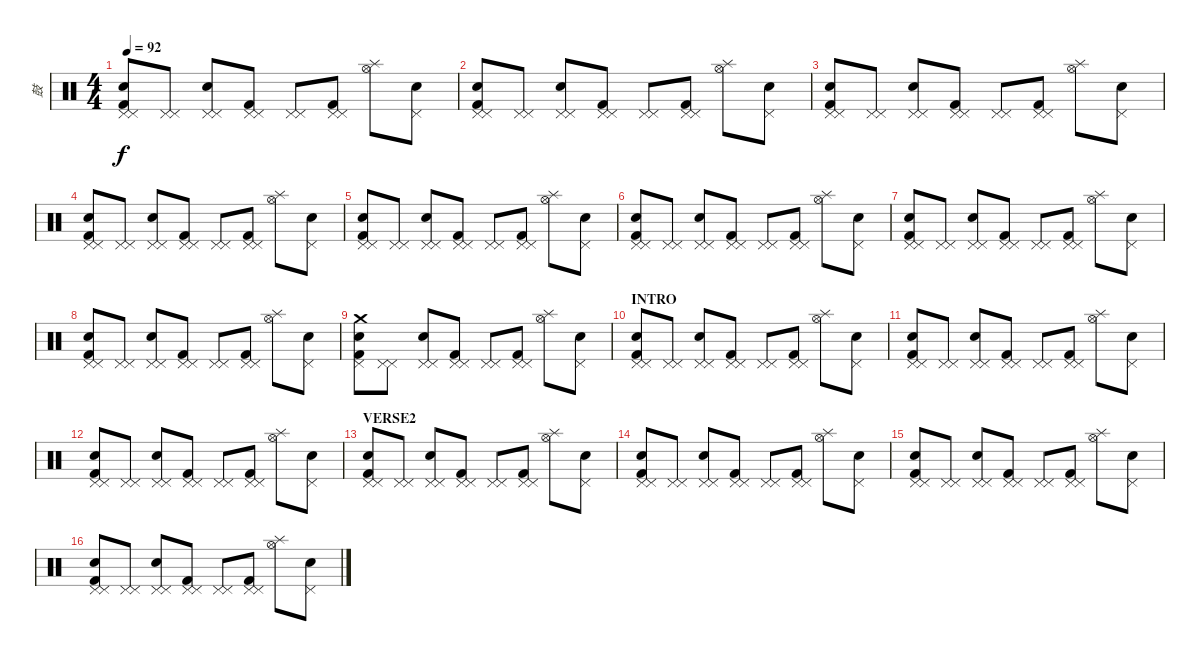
\track ("鼓" "鼓") {instrument percussion}
\staff {score}
\articulation defaults
\ts (4 4)
\tempo 92
\clef neutral
\ks c
("Pedal Hi-Hat (hit)" "Pedal Hi-Hat (hit)" "Kick (hit) 2" "Snare (hit) 2").8{dy f} ("Pedal Hi-Hat (hit)" "Pedal Hi-Hat (hit)").8 ("Pedal Hi-Hat (hit)" "Pedal Hi-Hat (hit)" "Electric Snare (hit)").8 ("Pedal Hi-Hat (hit)" "Pedal Hi-Hat (hit)" "Kick (hit) 2").8 ("Pedal Hi-Hat (hit)" "Pedal Hi-Hat (hit)").8 ("Pedal Hi-Hat (hit)" "Pedal Hi-Hat (hit)" "Kick (hit) 2").8 ("Splash (hit)" "Hi-Hat (open)").8 ("Pedal Hi-Hat (hit)" "Electric Snare (hit)").8 |
("Pedal Hi-Hat (hit)" "Pedal Hi-Hat (hit)" "Kick (hit) 2" "Snare (hit) 2").8 ("Pedal Hi-Hat (hit)" "Pedal Hi-Hat (hit)").8 ("Pedal Hi-Hat (hit)" "Pedal Hi-Hat (hit)" "Electric Snare (hit)").8 ("Pedal Hi-Hat (hit)" "Pedal Hi-Hat (hit)" "Kick (hit) 2").8 ("Pedal Hi-Hat (hit)" "Pedal Hi-Hat (hit)").8 ("Pedal Hi-Hat (hit)" "Pedal Hi-Hat (hit)" "Kick (hit) 2").8 ("Splash (hit)" "Hi-Hat (open)").8 ("Pedal Hi-Hat (hit)" "Electric Snare (hit)").8 |
("Pedal Hi-Hat (hit)" "Pedal Hi-Hat (hit)" "Kick (hit) 2" "Snare (hit) 2").8 ("Pedal Hi-Hat (hit)" "Pedal Hi-Hat (hit)").8 ("Pedal Hi-Hat (hit)" "Pedal Hi-Hat (hit)" "Electric Snare (hit)").8 ("Pedal Hi-Hat (hit)" "Pedal Hi-Hat (hit)" "Kick (hit) 2").8 ("Pedal Hi-Hat (hit)" "Pedal Hi-Hat (hit)").8 ("Pedal Hi-Hat (hit)" "Pedal Hi-Hat (hit)" "Kick (hit) 2").8 ("Splash (hit)" "Hi-Hat (open)").8 ("Pedal Hi-Hat (hit)" "Electric Snare (hit)").8 |
("Pedal Hi-Hat (hit)" "Pedal Hi-Hat (hit)" "Kick (hit) 2" "Snare (hit) 2").8 ("Pedal Hi-Hat (hit)" "Pedal Hi-Hat (hit)").8 ("Pedal Hi-Hat (hit)" "Pedal Hi-Hat (hit)" "Electric Snare (hit)").8 ("Pedal Hi-Hat (hit)" "Pedal Hi-Hat (hit)" "Kick (hit) 2").8 ("Pedal Hi-Hat (hit)" "Pedal Hi-Hat (hit)").8 ("Pedal Hi-Hat (hit)" "Pedal Hi-Hat (hit)" "Kick (hit) 2").8 ("Splash (hit)" "Hi-Hat (open)").8 ("Pedal Hi-Hat (hit)" "Electric Snare (hit)").8 |
("Pedal Hi-Hat (hit)" "Pedal Hi-Hat (hit)" "Kick (hit) 2" "Snare (hit) 2").8 ("Pedal Hi-Hat (hit)" "Pedal Hi-Hat (hit)").8 ("Pedal Hi-Hat (hit)" "Pedal Hi-Hat (hit)" "Electric Snare (hit)").8 ("Pedal Hi-Hat (hit)" "Pedal Hi-Hat (hit)" "Kick (hit) 2").8 ("Pedal Hi-Hat (hit)" "Pedal Hi-Hat (hit)").8 ("Pedal Hi-Hat (hit)" "Pedal Hi-Hat (hit)" "Kick (hit) 2").8 ("Splash (hit)" "Hi-Hat (open)").8 ("Pedal Hi-Hat (hit)" "Electric Snare (hit)").8 |
("Pedal Hi-Hat (hit)" "Pedal Hi-Hat (hit)" "Kick (hit) 2" "Snare (hit) 2").8 ("Pedal Hi-Hat (hit)" "Pedal Hi-Hat (hit)").8 ("Pedal Hi-Hat (hit)" "Pedal Hi-Hat (hit)" "Electric Snare (hit)").8 ("Pedal Hi-Hat (hit)" "Pedal Hi-Hat (hit)" "Kick (hit) 2").8 ("Pedal Hi-Hat (hit)" "Pedal Hi-Hat (hit)").8 ("Pedal Hi-Hat (hit)" "Pedal Hi-Hat (hit)" "Kick (hit) 2").8 ("Splash (hit)" "Hi-Hat (open)").8 ("Pedal Hi-Hat (hit)" "Electric Snare (hit)").8 |
("Pedal Hi-Hat (hit)" "Pedal Hi-Hat (hit)" "Kick (hit) 2" "Snare (hit) 2").8 ("Pedal Hi-Hat (hit)" "Pedal Hi-Hat (hit)").8 ("Pedal Hi-Hat (hit)" "Pedal Hi-Hat (hit)" "Electric Snare (hit)").8 ("Pedal Hi-Hat (hit)" "Pedal Hi-Hat (hit)" "Kick (hit) 2").8 ("Pedal Hi-Hat (hit)" "Pedal Hi-Hat (hit)").8 ("Pedal Hi-Hat (hit)" "Pedal Hi-Hat (hit)" "Kick (hit) 2").8 ("Splash (hit)" "Hi-Hat (open)").8 ("Pedal Hi-Hat (hit)" "Electric Snare (hit)").8 |
("Pedal Hi-Hat (hit)" "Pedal Hi-Hat (hit)" "Kick (hit) 2" "Snare (hit) 2").8 ("Pedal Hi-Hat (hit)" "Pedal Hi-Hat (hit)").8 ("Pedal Hi-Hat (hit)" "Pedal Hi-Hat (hit)" "Electric Snare (hit)").8 ("Pedal Hi-Hat (hit)" "Pedal Hi-Hat (hit)" "Kick (hit) 2").8 ("Pedal Hi-Hat (hit)" "Pedal Hi-Hat (hit)").8 ("Pedal Hi-Hat (hit)" "Pedal Hi-Hat (hit)" "Kick (hit) 2").8 ("Splash (hit)" "Hi-Hat (open)").8 ("Pedal Hi-Hat (hit)" "Electric Snare (hit)").8 |
("Crash medium (hit)" "Pedal Hi-Hat (hit)" "Kick (hit) 2" "Snare (hit) 2").8 ("Pedal Hi-Hat (hit)" "Pedal Hi-Hat (hit)").8 ("Pedal Hi-Hat (hit)" "Pedal Hi-Hat (hit)" "Electric Snare (hit)").8 ("Pedal Hi-Hat (hit)" "Pedal Hi-Hat (hit)" "Kick (hit) 2").8 ("Pedal Hi-Hat (hit)" "Pedal Hi-Hat (hit)").8 ("Pedal Hi-Hat (hit)" "Pedal Hi-Hat (hit)" "Kick (hit) 2").8 ("Splash (hit)" "Hi-Hat (open)").8 ("Pedal Hi-Hat (hit)" "Electric Snare (hit)").8 |
\section ("" "INTRO")
("Pedal Hi-Hat (hit)" "Pedal Hi-Hat (hit)" "Kick (hit) 2" "Snare (hit) 2").8 ("Pedal Hi-Hat (hit)" "Pedal Hi-Hat (hit)").8 ("Pedal Hi-Hat (hit)" "Pedal Hi-Hat (hit)" "Electric Snare (hit)").8 ("Pedal Hi-Hat (hit)" "Pedal Hi-Hat (hit)" "Kick (hit) 2").8 ("Pedal Hi-Hat (hit)" "Pedal Hi-Hat (hit)").8 ("Pedal Hi-Hat (hit)" "Pedal Hi-Hat (hit)" "Kick (hit) 2").8 ("Splash (hit)" "Hi-Hat (open)").8 ("Pedal Hi-Hat (hit)" "Electric Snare (hit)").8 |
("Pedal Hi-Hat (hit)" "Pedal Hi-Hat (hit)" "Kick (hit) 2" "Snare (hit) 2").8 ("Pedal Hi-Hat (hit)" "Pedal Hi-Hat (hit)").8 ("Pedal Hi-Hat (hit)" "Pedal Hi-Hat (hit)" "Electric Snare (hit)").8 ("Pedal Hi-Hat (hit)" "Pedal Hi-Hat (hit)" "Kick (hit) 2").8 ("Pedal Hi-Hat (hit)" "Pedal Hi-Hat (hit)").8 ("Pedal Hi-Hat (hit)" "Pedal Hi-Hat (hit)" "Kick (hit) 2").8 ("Splash (hit)" "Hi-Hat (open)").8 ("Pedal Hi-Hat (hit)" "Electric Snare (hit)").8 |
("Pedal Hi-Hat (hit)" "Pedal Hi-Hat (hit)" "Kick (hit) 2" "Snare (hit) 2").8 ("Pedal Hi-Hat (hit)" "Pedal Hi-Hat (hit)").8 ("Pedal Hi-Hat (hit)" "Pedal Hi-Hat (hit)" "Electric Snare (hit)").8 ("Pedal Hi-Hat (hit)" "Pedal Hi-Hat (hit)" "Kick (hit) 2").8 ("Pedal Hi-Hat (hit)" "Pedal Hi-Hat (hit)").8 ("Pedal Hi-Hat (hit)" "Pedal Hi-Hat (hit)" "Kick (hit) 2").8 ("Splash (hit)" "Hi-Hat (open)").8 ("Pedal Hi-Hat (hit)" "Electric Snare (hit)").8 |
\section ("" "VERSE2")
("Pedal Hi-Hat (hit)" "Pedal Hi-Hat (hit)" "Kick (hit) 2" "Snare (hit) 2").8 ("Pedal Hi-Hat (hit)" "Pedal Hi-Hat (hit)").8 ("Pedal Hi-Hat (hit)" "Pedal Hi-Hat (hit)" "Electric Snare (hit)").8 ("Pedal Hi-Hat (hit)" "Pedal Hi-Hat (hit)" "Kick (hit) 2").8 ("Pedal Hi-Hat (hit)" "Pedal Hi-Hat (hit)").8 ("Pedal Hi-Hat (hit)" "Pedal Hi-Hat (hit)" "Kick (hit) 2").8 ("Splash (hit)" "Hi-Hat (open)").8 ("Pedal Hi-Hat (hit)" "Electric Snare (hit)").8 |
("Pedal Hi-Hat (hit)" "Pedal Hi-Hat (hit)" "Kick (hit) 2" "Snare (hit) 2").8 ("Pedal Hi-Hat (hit)" "Pedal Hi-Hat (hit)").8 ("Pedal Hi-Hat (hit)" "Pedal Hi-Hat (hit)" "Electric Snare (hit)").8 ("Pedal Hi-Hat (hit)" "Pedal Hi-Hat (hit)" "Kick (hit) 2").8 ("Pedal Hi-Hat (hit)" "Pedal Hi-Hat (hit)").8 ("Pedal Hi-Hat (hit)" "Pedal Hi-Hat (hit)" "Kick (hit) 2").8 ("Splash (hit)" "Hi-Hat (open)").8 ("Pedal Hi-Hat (hit)" "Electric Snare (hit)").8 |
("Pedal Hi-Hat (hit)" "Pedal Hi-Hat (hit)" "Kick (hit) 2" "Snare (hit) 2").8 ("Pedal Hi-Hat (hit)" "Pedal Hi-Hat (hit)").8 ("Pedal Hi-Hat (hit)" "Pedal Hi-Hat (hit)" "Electric Snare (hit)").8 ("Pedal Hi-Hat (hit)" "Pedal Hi-Hat (hit)" "Kick (hit) 2").8 ("Pedal Hi-Hat (hit)" "Pedal Hi-Hat (hit)").8 ("Pedal Hi-Hat (hit)" "Pedal Hi-Hat (hit)" "Kick (hit) 2").8 ("Splash (hit)" "Hi-Hat (open)").8 ("Pedal Hi-Hat (hit)" "Electric Snare (hit)").8 |
("Pedal Hi-Hat (hit)" "Pedal Hi-Hat (hit)" "Kick (hit) 2" "Snare (hit) 2").8 ("Pedal Hi-Hat (hit)" "Pedal Hi-Hat (hit)").8 ("Pedal Hi-Hat (hit)" "Pedal Hi-Hat (hit)" "Electric Snare (hit)").8 ("Pedal Hi-Hat (hit)" "Pedal Hi-Hat (hit)" "Kick (hit) 2").8 ("Pedal Hi-Hat (hit)" "Pedal Hi-Hat (hit)").8 ("Pedal Hi-Hat (hit)" "Pedal Hi-Hat (hit)" "Kick (hit) 2").8 ("Splash (hit)" "Hi-Hat (open)").8 ("Pedal Hi-Hat (hit)" "Electric Snare (hit)").8
